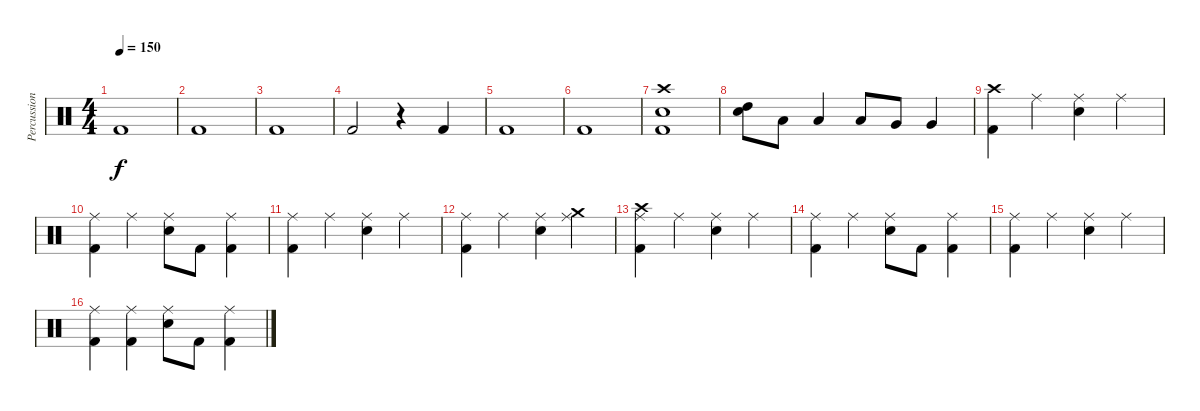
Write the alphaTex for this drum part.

\track ("Percussion" "Percussion") {instrument percussion}
\staff {score}
\articulation defaults
\ts (4 4)
\tempo 150
\clef neutral
\ks c "Kick (hit) 2".1{dy f}
|
"Kick (hit) 2".1 |
"Kick (hit) 2".1 |
"Kick (hit) 2".2 r.4 "Kick (hit) 2".4 |
"Kick (hit) 2".1 |
"Kick (hit) 2".1 |
("Crash high (hit)" "Electric Snare (hit)" "Kick (hit) 2").1 |
("Snare (hit) 2" "High Tom (hit)").8 "Low Tom (hit)".8 "Low Tom (hit)".4 "Low Tom (hit)".8 "Very Low Tom (hit)".8 "Very Low Tom (hit)".4 |
("Crash high (hit)" "Kick (hit) 2").4 "Ride (middle)".4 ("Ride (middle)" "Snare (hit) 2").4 "Ride (middle)".4 |
("Ride (middle)" "Kick (hit) 2").4 "Ride (middle)".4 ("Ride (middle)" "Snare (hit) 2").8 "Kick (hit) 2".8 ("Ride (middle)" "Kick (hit) 2").4 |
("Ride (middle)" "Kick (hit) 2").4 "Ride (middle)".4 ("Ride (middle)" "Snare (hit) 2").4 "Ride (middle)".4 |
("Ride (middle)" "Kick (hit) 2").4 "Ride (middle)".4 ("Ride (middle)" "Snare (hit) 2").4 ("Ride (middle)" "Crash medium (hit)").4 |
("Ride (middle)" "Crash high (hit)" "Kick (hit) 2").4 "Ride (middle)".4 ("Ride (middle)" "Snare (hit) 2").4 "Ride (middle)".4 |
("Ride (middle)" "Kick (hit) 2").4 "Ride (middle)".4 ("Ride (middle)" "Snare (hit) 2").8 "Kick (hit) 2".8 ("Ride (middle)" "Kick (hit) 2").4 |
("Ride (middle)" "Kick (hit) 2").4 "Ride (middle)".4 ("Ride (middle)" "Snare (hit) 2").4 "Ride (middle)".4 |
("Ride (middle)" "Kick (hit) 2").4 ("Ride (middle)" "Kick (hit) 2").4 ("Ride (middle)" "Snare (hit) 2").8 "Kick (hit) 2".8 ("Ride (middle)" "Kick (hit) 2").4
